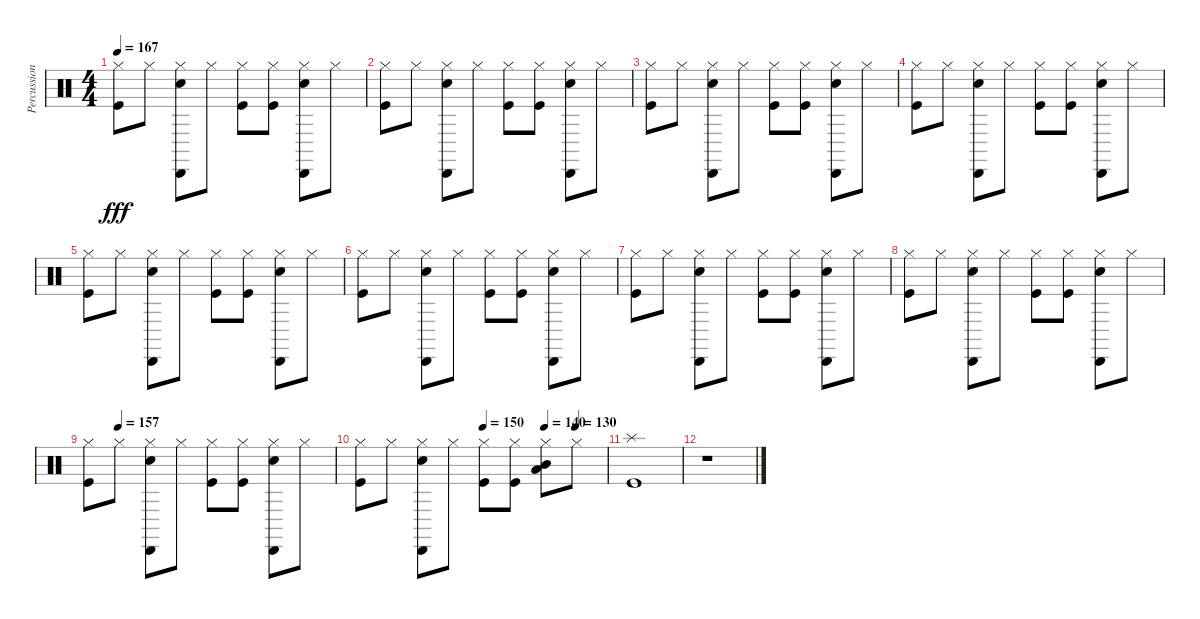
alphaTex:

\track ("Percussion" "Percussion") {instrument percussion}
\staff {score}
\articulation defaults
\ts (4 4)
\tempo 167
\clef neutral
\ks c
("Hi-Hat (closed)" "Kick (hit)").8{dy fff} "Hi-Hat (closed)".8 ("Hi-Hat (closed)" "Cabasa (hit)" "Snare (hit) 2").8 "Hi-Hat (closed)".8 ("Hi-Hat (closed)" "Kick (hit)").8 ("Hi-Hat (closed)" "Kick (hit)").8 ("Hi-Hat (closed)" "Cabasa (hit)" "Snare (hit) 2").8 "Hi-Hat (closed)".8 |
("Hi-Hat (closed)" "Kick (hit)").8 "Hi-Hat (closed)".8 ("Hi-Hat (closed)" "Cabasa (hit)" "Snare (hit) 2").8 "Hi-Hat (closed)".8 ("Hi-Hat (closed)" "Kick (hit)").8 ("Hi-Hat (closed)" "Kick (hit)").8 ("Hi-Hat (closed)" "Cabasa (hit)" "Snare (hit) 2").8 "Hi-Hat (closed)".8 |
("Hi-Hat (closed)" "Kick (hit)").8 "Hi-Hat (closed)".8 ("Hi-Hat (closed)" "Cabasa (hit)" "Snare (hit) 2").8 "Hi-Hat (closed)".8 ("Hi-Hat (closed)" "Kick (hit)").8 ("Hi-Hat (closed)" "Kick (hit)").8 ("Hi-Hat (closed)" "Cabasa (hit)" "Snare (hit) 2").8 "Hi-Hat (closed)".8 |
("Hi-Hat (closed)" "Kick (hit)").8 "Hi-Hat (closed)".8 ("Hi-Hat (closed)" "Cabasa (hit)" "Snare (hit) 2").8 "Hi-Hat (closed)".8 ("Hi-Hat (closed)" "Kick (hit)").8 ("Hi-Hat (closed)" "Kick (hit)").8 ("Hi-Hat (closed)" "Cabasa (hit)" "Snare (hit) 2").8 "Hi-Hat (closed)".8 |
("Hi-Hat (closed)" "Kick (hit)").8 "Hi-Hat (closed)".8 ("Hi-Hat (closed)" "Cabasa (hit)" "Snare (hit) 2").8 "Hi-Hat (closed)".8 ("Hi-Hat (closed)" "Kick (hit)").8 ("Hi-Hat (closed)" "Kick (hit)").8 ("Hi-Hat (closed)" "Cabasa (hit)" "Snare (hit) 2").8 "Hi-Hat (closed)".8 |
("Hi-Hat (closed)" "Kick (hit)").8 "Hi-Hat (closed)".8 ("Hi-Hat (closed)" "Cabasa (hit)" "Snare (hit) 2").8 "Hi-Hat (closed)".8 ("Hi-Hat (closed)" "Kick (hit)").8 ("Hi-Hat (closed)" "Kick (hit)").8 ("Hi-Hat (closed)" "Cabasa (hit)" "Snare (hit) 2").8 "Hi-Hat (closed)".8 |
("Hi-Hat (closed)" "Kick (hit)").8 "Hi-Hat (closed)".8 ("Hi-Hat (closed)" "Cabasa (hit)" "Snare (hit) 2").8 "Hi-Hat (closed)".8 ("Hi-Hat (closed)" "Kick (hit)").8 ("Hi-Hat (closed)" "Kick (hit)").8 ("Hi-Hat (closed)" "Cabasa (hit)" "Snare (hit) 2").8 "Hi-Hat (closed)".8 |
("Hi-Hat (closed)" "Kick (hit)").8 "Hi-Hat (closed)".8 ("Hi-Hat (closed)" "Cabasa (hit)" "Snare (hit) 2").8 "Hi-Hat (closed)".8 ("Hi-Hat (closed)" "Kick (hit)").8 ("Hi-Hat (closed)" "Kick (hit)").8 ("Hi-Hat (closed)" "Cabasa (hit)" "Snare (hit) 2").8 "Hi-Hat (closed)".8 |
\tempo (157 0.125)
("Hi-Hat (closed)" "Kick (hit)").8 "Hi-Hat (closed)".8 ("Hi-Hat (closed)" "Cabasa (hit)" "Snare (hit) 2").8 "Hi-Hat (closed)".8 ("Hi-Hat (closed)" "Kick (hit)").8 ("Hi-Hat (closed)" "Kick (hit)").8 ("Hi-Hat (closed)" "Cabasa (hit)" "Snare (hit) 2").8 "Hi-Hat (closed)".8 |
\tempo (150 0.5)
\tempo (140 0.75)
\tempo (130 0.875)
("Hi-Hat (closed)" "Kick (hit)").8 "Hi-Hat (closed)".8 ("Hi-Hat (closed)" "Cabasa (hit)" "Snare (hit) 2").8 "Hi-Hat (closed)".8 ("Hi-Hat (closed)" "Kick (hit)").8 ("Hi-Hat (closed)" "Kick (hit)").8 ("Hi-Hat (closed)" "Mid Tom (hit)" "Low Tom (hit)").8 "Hi-Hat (closed)".8 |
("Splash (hit)" "Kick (hit)").1 |
r.1
